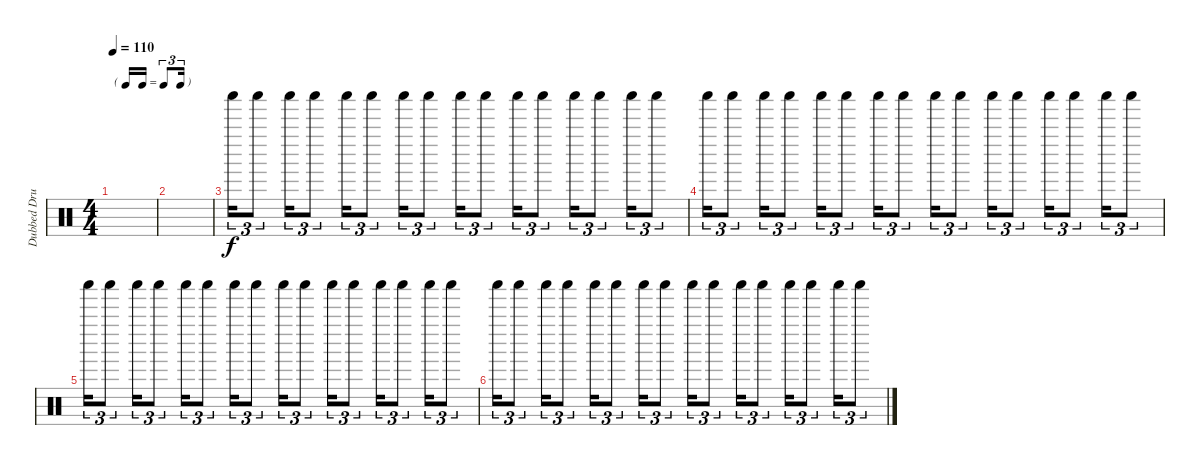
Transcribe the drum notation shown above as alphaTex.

\track ("Dubbed Drums - Zac" "Dubbed Dru") {instrument percussion}
\staff {score}
\articulation defaults
\ts (4 4)
\tf triplet16th
\tempo 110
\clef neutral
\ks c
|
|
"Shaker (hit)".16{tu (3 2)} "Shaker (hit)".8{tu (3 2)} "Shaker (hit)".16{tu (3 2)} "Shaker (hit)".8{tu (3 2)} "Shaker (hit)".16{tu (3 2)} "Shaker (hit)".8{tu (3 2)} "Shaker (hit)".16{tu (3 2)} "Shaker (hit)".8{tu (3 2)} "Shaker (hit)".16{tu (3 2)} "Shaker (hit)".8{tu (3 2)} "Shaker (hit)".16{tu (3 2)} "Shaker (hit)".8{tu (3 2)} "Shaker (hit)".16{tu (3 2)} "Shaker (hit)".8{tu (3 2)} "Shaker (hit)".16{tu (3 2)} "Shaker (hit)".8{tu (3 2)} |
"Shaker (hit)".16{tu (3 2)} "Shaker (hit)".8{tu (3 2)} "Shaker (hit)".16{tu (3 2)} "Shaker (hit)".8{tu (3 2)} "Shaker (hit)".16{tu (3 2)} "Shaker (hit)".8{tu (3 2)} "Shaker (hit)".16{tu (3 2)} "Shaker (hit)".8{tu (3 2)} "Shaker (hit)".16{tu (3 2)} "Shaker (hit)".8{tu (3 2)} "Shaker (hit)".16{tu (3 2)} "Shaker (hit)".8{tu (3 2)} "Shaker (hit)".16{tu (3 2)} "Shaker (hit)".8{tu (3 2)} "Shaker (hit)".16{tu (3 2)} "Shaker (hit)".8{tu (3 2)} |
"Shaker (hit)".16{tu (3 2)} "Shaker (hit)".8{tu (3 2)} "Shaker (hit)".16{tu (3 2)} "Shaker (hit)".8{tu (3 2)} "Shaker (hit)".16{tu (3 2)} "Shaker (hit)".8{tu (3 2)} "Shaker (hit)".16{tu (3 2)} "Shaker (hit)".8{tu (3 2)} "Shaker (hit)".16{tu (3 2)} "Shaker (hit)".8{tu (3 2)} "Shaker (hit)".16{tu (3 2)} "Shaker (hit)".8{tu (3 2)} "Shaker (hit)".16{tu (3 2)} "Shaker (hit)".8{tu (3 2)} "Shaker (hit)".16{tu (3 2)} "Shaker (hit)".8{tu (3 2)} |
"Shaker (hit)".16{tu (3 2)} "Shaker (hit)".8{tu (3 2)} "Shaker (hit)".16{tu (3 2)} "Shaker (hit)".8{tu (3 2)} "Shaker (hit)".16{tu (3 2)} "Shaker (hit)".8{tu (3 2)} "Shaker (hit)".16{tu (3 2)} "Shaker (hit)".8{tu (3 2)} "Shaker (hit)".16{tu (3 2)} "Shaker (hit)".8{tu (3 2)} "Shaker (hit)".16{tu (3 2)} "Shaker (hit)".8{tu (3 2)} "Shaker (hit)".16{tu (3 2)} "Shaker (hit)".8{tu (3 2)} "Shaker (hit)".16{tu (3 2)} "Shaker (hit)".8{tu (3 2)}
